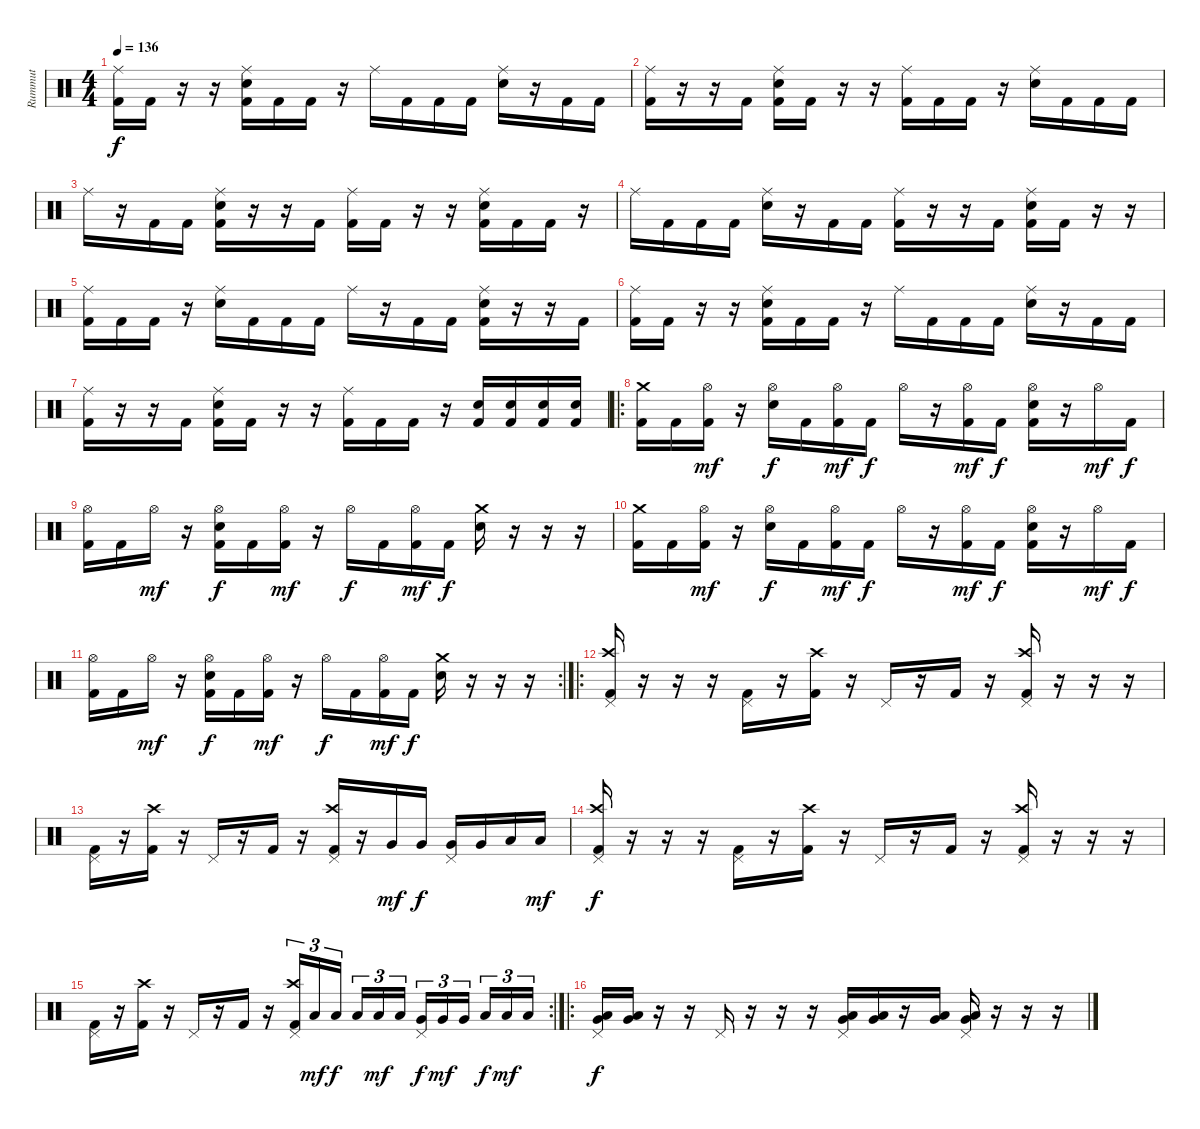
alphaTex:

\track ("Rummut" "Rummut") {instrument percussion}
\staff {score}
\articulation defaults
\ts (4 4)
\tempo 136
\clef neutral
\ks c
("Ride (middle)" "Kick (hit) 2").16{dy f} "Kick (hit) 2".16 r.16 r.16 ("Ride (middle)" "Electric Snare (hit)" "Kick (hit) 2").16 "Kick (hit) 2".16 "Kick (hit) 2".16 r.16 "Ride (middle)".16 "Kick (hit) 2".16 "Kick (hit) 2".16 "Kick (hit) 2".16 ("Ride (middle)" "Electric Snare (hit)").16 r.16 "Kick (hit) 2".16 "Kick (hit) 2".16 |
("Ride (middle)" "Kick (hit) 2").16 r.16 r.16 "Kick (hit) 2".16 ("Ride (middle)" "Electric Snare (hit)" "Kick (hit) 2").16 "Kick (hit) 2".16 r.16 r.16 ("Ride (middle)" "Kick (hit) 2").16 "Kick (hit) 2".16 "Kick (hit) 2".16 r.16 ("Ride (middle)" "Electric Snare (hit)").16 "Kick (hit) 2".16 "Kick (hit) 2".16 "Kick (hit) 2".16 |
"Ride (middle)".16 r.16 "Kick (hit) 2".16 "Kick (hit) 2".16 ("Ride (middle)" "Electric Snare (hit)" "Kick (hit) 2").16 r.16 r.16 "Kick (hit) 2".16 ("Ride (middle)" "Kick (hit) 2").16 "Kick (hit) 2".16 r.16 r.16 ("Ride (middle)" "Electric Snare (hit)" "Kick (hit) 2").16 "Kick (hit) 2".16 "Kick (hit) 2".16 r.16 |
"Ride (middle)".16 "Kick (hit) 2".16 "Kick (hit) 2".16 "Kick (hit) 2".16 ("Ride (middle)" "Electric Snare (hit)").16 r.16 "Kick (hit) 2".16 "Kick (hit) 2".16 ("Ride (middle)" "Kick (hit) 2").16 r.16 r.16 "Kick (hit) 2".16 ("Ride (middle)" "Electric Snare (hit)" "Kick (hit) 2").16 "Kick (hit) 2".16 r.16 r.16 |
("Ride (middle)" "Kick (hit) 2").16 "Kick (hit) 2".16 "Kick (hit) 2".16 r.16 ("Ride (middle)" "Electric Snare (hit)").16 "Kick (hit) 2".16 "Kick (hit) 2".16 "Kick (hit) 2".16 "Ride (middle)".16 r.16 "Kick (hit) 2".16 "Kick (hit) 2".16 ("Ride (middle)" "Electric Snare (hit)" "Kick (hit) 2").16 r.16 r.16 "Kick (hit) 2".16 |
("Ride (middle)" "Kick (hit) 2").16 "Kick (hit) 2".16 r.16 r.16 ("Ride (middle)" "Electric Snare (hit)" "Kick (hit) 2").16 "Kick (hit) 2".16 "Kick (hit) 2".16 r.16 "Ride (middle)".16 "Kick (hit) 2".16 "Kick (hit) 2".16 "Kick (hit) 2".16 ("Ride (middle)" "Electric Snare (hit)").16 r.16 "Kick (hit) 2".16 "Kick (hit) 2".16 |
("Ride (middle)" "Kick (hit) 2").16 r.16 r.16 "Kick (hit) 2".16 ("Ride (middle)" "Electric Snare (hit)" "Kick (hit) 2").16 "Kick (hit) 2".16 r.16 r.16 ("Ride (middle)" "Kick (hit) 2").16 "Kick (hit) 2".16 "Kick (hit) 2".16 r.16 ("Electric Snare (hit)" "Kick (hit) 2").16 ("Electric Snare (hit)" "Kick (hit) 2").16 ("Electric Snare (hit)" "Kick (hit) 2").16 ("Electric Snare (hit)" "Kick (hit) 2").16 |
\ro
("Crash medium (hit)" "Kick (hit) 2").16 "Kick (hit) 2".16 ("Hi-Hat (open)" "Kick (hit) 2").16{dy mf} r.16 ("Hi-Hat (open)" "Electric Snare (hit)").16{dy f} "Kick (hit) 2".16 ("Hi-Hat (open)" "Kick (hit) 2").16{dy mf} "Kick (hit) 2".16{dy f} "Hi-Hat (open)".16 r.16 ("Hi-Hat (open)" "Kick (hit) 2").16{dy mf} "Kick (hit) 2".16{dy f} ("Hi-Hat (open)" "Electric Snare (hit)" "Kick (hit) 2").16 r.16 "Hi-Hat (open)".16{dy mf} "Kick (hit) 2".16{dy f} |
("Hi-Hat (open)" "Kick (hit) 2").16 "Kick (hit) 2".16 "Hi-Hat (open)".16{dy mf} r.16 ("Hi-Hat (open)" "Electric Snare (hit)" "Kick (hit) 2").16{dy f} "Kick (hit) 2".16 ("Hi-Hat (open)" "Kick (hit) 2").16{dy mf} r.16 "Hi-Hat (open)".16{dy f} "Kick (hit) 2".16 ("Hi-Hat (open)" "Kick (hit) 2").16{dy mf} "Kick (hit) 2".16{dy f} ("Crash medium (hit)" "Electric Snare (hit)").16 r.16 r.16 r.16 |
("Crash medium (hit)" "Kick (hit) 2").16 "Kick (hit) 2".16 ("Hi-Hat (open)" "Kick (hit) 2").16{dy mf} r.16 ("Hi-Hat (open)" "Electric Snare (hit)").16{dy f} "Kick (hit) 2".16 ("Hi-Hat (open)" "Kick (hit) 2").16{dy mf} "Kick (hit) 2".16{dy f} "Hi-Hat (open)".16 r.16 ("Hi-Hat (open)" "Kick (hit) 2").16{dy mf} "Kick (hit) 2".16{dy f} ("Hi-Hat (open)" "Electric Snare (hit)" "Kick (hit) 2").16 r.16 "Hi-Hat (open)".16{dy mf} "Kick (hit) 2".16{dy f} |
\rc 2
("Hi-Hat (open)" "Kick (hit) 2").16 "Kick (hit) 2".16 "Hi-Hat (open)".16{dy mf} r.16 ("Hi-Hat (open)" "Electric Snare (hit)" "Kick (hit) 2").16{dy f} "Kick (hit) 2".16 ("Hi-Hat (open)" "Kick (hit) 2").16{dy mf} r.16 "Hi-Hat (open)".16{dy f} "Kick (hit) 2".16 ("Hi-Hat (open)" "Kick (hit) 2").16{dy mf} "Kick (hit) 2".16{dy f} ("Crash medium (hit)" "Electric Snare (hit)").16 r.16 r.16 r.16 |
\ro
("Crash high (hit)" "Pedal Hi-Hat (hit)" "Kick (hit) 2").16 r.16 r.16 r.16 ("Pedal Hi-Hat (hit)" "Kick (hit) 2").16 r.16 ("Crash high (hit)" "Kick (hit) 2").16 r.16 "Pedal Hi-Hat (hit)".16 r.16 "Kick (hit) 2".16 r.16 ("Crash high (hit)" "Pedal Hi-Hat (hit)" "Kick (hit) 2").16 r.16 r.16 r.16 |
("Pedal Hi-Hat (hit)" "Kick (hit) 2").16 r.16 ("Crash high (hit)" "Kick (hit) 2").16 r.16 "Pedal Hi-Hat (hit)".16 r.16 "Kick (hit) 2".16 r.16 ("Crash high (hit)" "Pedal Hi-Hat (hit)" "Kick (hit) 2").16 r.16 "Very Low Tom (hit)".16{dy mf} "Very Low Tom (hit)".16{dy f} ("Pedal Hi-Hat (hit)" "Very Low Tom (hit)").16 "Very Low Tom (hit)".16 "Low Floor Tom (hit)".16 "Low Floor Tom (hit)".16{dy mf} |
("Crash high (hit)" "Pedal Hi-Hat (hit)" "Kick (hit) 2").16{dy f} r.16 r.16 r.16 ("Pedal Hi-Hat (hit)" "Kick (hit) 2").16 r.16 ("Crash high (hit)" "Kick (hit) 2").16 r.16 "Pedal Hi-Hat (hit)".16 r.16 "Kick (hit) 2".16 r.16 ("Crash high (hit)" "Pedal Hi-Hat (hit)" "Kick (hit) 2").16 r.16 r.16 r.16 |
\rc 2
("Pedal Hi-Hat (hit)" "Kick (hit) 2").16 r.16 ("Crash high (hit)" "Kick (hit) 2").16 r.16 "Pedal Hi-Hat (hit)".16 r.16 "Kick (hit) 2".16 r.16 ("Crash high (hit)" "Pedal Hi-Hat (hit)" "Kick (hit) 2").16{tu (3 2)} "Low Tom (hit)".16{tu (3 2) dy mf} "Low Tom (hit)".16{tu (3 2) dy f} "Low Tom (hit)".16{tu (3 2)} "Low Tom (hit)".16{tu (3 2) dy mf} "Low Tom (hit)".16{tu (3 2)} ("Pedal Hi-Hat (hit)" "Very Low Tom (hit)").16{tu (3 2) dy f} "Very Low Tom (hit)".16{tu (3 2) dy mf} "Very Low Tom (hit)".16{tu (3 2)} "Low Floor Tom (hit)".16{tu (3 2) dy f} "Low Floor Tom (hit)".16{tu (3 2) dy mf} "Low Floor Tom (hit)".16{tu (3 2)} |
\ro
("Pedal Hi-Hat (hit)" "Very Low Tom (hit)" "Low Floor Tom (hit)").16{dy f} ("Very Low Tom (hit)" "Low Floor Tom (hit)").16 r.16 r.16 "Pedal Hi-Hat (hit)".16 r.16 r.16 r.16 ("Pedal Hi-Hat (hit)" "Very Low Tom (hit)" "Low Floor Tom (hit)").16 ("Very Low Tom (hit)" "Low Floor Tom (hit)").16 r.16 ("Very Low Tom (hit)" "Low Floor Tom (hit)").16 ("Pedal Hi-Hat (hit)" "Very Low Tom (hit)" "Low Floor Tom (hit)").16 r.16 r.16 r.16
